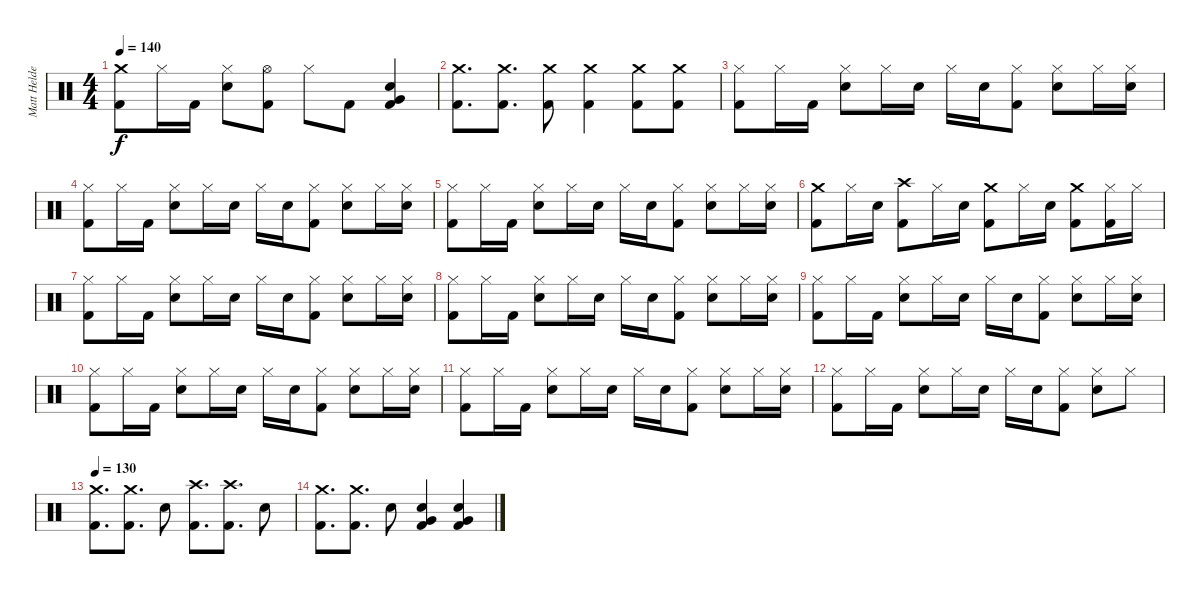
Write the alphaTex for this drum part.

\track ("Matt Helders" "Matt Helde") {instrument percussion}
\staff {score}
\articulation defaults
\ts (4 4)
\tempo 140
\clef neutral
\ks c
("Crash medium (hit)" "Kick (hit) 2").8{dy f} "Hi-Hat (closed)".16 "Kick (hit) 2".16 ("Hi-Hat (closed)" "Snare (hit) 2").8 ("Hi-Hat (open)" "Kick (hit) 2").8 "Hi-Hat (closed)".8 "Kick (hit) 2".8 ("Very Low Tom (hit)" "Kick (hit) 2" "Snare (hit) 2").4 |
("Crash medium (hit)" "Kick (hit) 2").8{d} ("Crash medium (hit)" "Kick (hit) 2").8{d} ("Crash medium (hit)" "Kick (hit) 2").8 ("Crash medium (hit)" "Kick (hit) 2").4 ("Crash medium (hit)" "Kick (hit) 2").8 ("Crash medium (hit)" "Kick (hit) 2").8 |
("Hi-Hat (closed)" "Kick (hit) 2").8 "Hi-Hat (closed)".16 "Kick (hit) 2".16 ("Hi-Hat (closed)" "Snare (hit) 2").8 "Hi-Hat (closed)".16 "Snare (hit) 2".16 "Hi-Hat (closed)".16 "Snare (hit) 2".16 ("Hi-Hat (closed)" "Kick (hit) 2").8 ("Hi-Hat (closed)" "Snare (hit) 2").8 "Hi-Hat (closed)".16 ("Hi-Hat (closed)" "Snare (hit) 2").16 |
("Hi-Hat (closed)" "Kick (hit) 2").8 "Hi-Hat (closed)".16 "Kick (hit) 2".16 ("Hi-Hat (closed)" "Snare (hit) 2").8 "Hi-Hat (closed)".16 "Snare (hit) 2".16 "Hi-Hat (closed)".16 "Snare (hit) 2".16 ("Hi-Hat (closed)" "Kick (hit) 2").8 ("Hi-Hat (closed)" "Snare (hit) 2").8 "Hi-Hat (closed)".16 ("Hi-Hat (closed)" "Snare (hit) 2").16 |
("Hi-Hat (closed)" "Kick (hit) 2").8 "Hi-Hat (closed)".16 "Kick (hit) 2".16 ("Hi-Hat (closed)" "Snare (hit) 2").8 "Hi-Hat (closed)".16 "Snare (hit) 2".16 "Hi-Hat (closed)".16 "Snare (hit) 2".16 ("Hi-Hat (closed)" "Kick (hit) 2").8 ("Hi-Hat (closed)" "Snare (hit) 2").8 "Hi-Hat (closed)".16 ("Hi-Hat (closed)" "Snare (hit) 2").16 |
("Crash medium (hit)" "Kick (hit) 2").8 "Hi-Hat (closed)".16 "Snare (hit) 2".16 ("Crash high (hit)" "Kick (hit) 2").8 "Hi-Hat (closed)".16 "Snare (hit) 2".16 ("Crash medium (hit)" "Kick (hit) 2").8 "Hi-Hat (closed)".16 "Snare (hit) 2".16 ("Crash medium (hit)" "Kick (hit) 2").8 ("Hi-Hat (closed)" "Kick (hit) 2").16 "Hi-Hat (closed)".16 |
("Hi-Hat (closed)" "Kick (hit) 2").8 "Hi-Hat (closed)".16 "Kick (hit) 2".16 ("Hi-Hat (closed)" "Snare (hit) 2").8 "Hi-Hat (closed)".16 "Snare (hit) 2".16 "Hi-Hat (closed)".16 "Snare (hit) 2".16 ("Hi-Hat (closed)" "Kick (hit) 2").8 ("Hi-Hat (closed)" "Snare (hit) 2").8 "Hi-Hat (closed)".16 ("Hi-Hat (closed)" "Snare (hit) 2").16 |
("Hi-Hat (closed)" "Kick (hit) 2").8 "Hi-Hat (closed)".16 "Kick (hit) 2".16 ("Hi-Hat (closed)" "Snare (hit) 2").8 "Hi-Hat (closed)".16 "Snare (hit) 2".16 "Hi-Hat (closed)".16 "Snare (hit) 2".16 ("Hi-Hat (closed)" "Kick (hit) 2").8 ("Hi-Hat (closed)" "Snare (hit) 2").8 "Hi-Hat (closed)".16 ("Hi-Hat (closed)" "Snare (hit) 2").16 |
("Hi-Hat (closed)" "Kick (hit) 2").8 "Hi-Hat (closed)".16 "Kick (hit) 2".16 ("Hi-Hat (closed)" "Snare (hit) 2").8 "Hi-Hat (closed)".16 "Snare (hit) 2".16 "Hi-Hat (closed)".16 "Snare (hit) 2".16 ("Hi-Hat (closed)" "Kick (hit) 2").8 ("Hi-Hat (closed)" "Snare (hit) 2").8 "Hi-Hat (closed)".16 ("Hi-Hat (closed)" "Snare (hit) 2").16 |
("Hi-Hat (closed)" "Kick (hit) 2").8 "Hi-Hat (closed)".16 "Kick (hit) 2".16 ("Hi-Hat (closed)" "Snare (hit) 2").8 "Hi-Hat (closed)".16 "Snare (hit) 2".16 "Hi-Hat (closed)".16 "Snare (hit) 2".16 ("Hi-Hat (closed)" "Kick (hit) 2").8 ("Hi-Hat (closed)" "Snare (hit) 2").8 "Hi-Hat (closed)".16 ("Hi-Hat (closed)" "Snare (hit) 2").16 |
("Hi-Hat (closed)" "Kick (hit) 2").8 "Hi-Hat (closed)".16 "Kick (hit) 2".16 ("Hi-Hat (closed)" "Snare (hit) 2").8 "Hi-Hat (closed)".16 "Snare (hit) 2".16 "Hi-Hat (closed)".16 "Snare (hit) 2".16 ("Hi-Hat (closed)" "Kick (hit) 2").8 ("Hi-Hat (closed)" "Snare (hit) 2").8 "Hi-Hat (closed)".16 ("Hi-Hat (closed)" "Snare (hit) 2").16 |
("Hi-Hat (closed)" "Kick (hit) 2").8 "Hi-Hat (closed)".16 "Kick (hit) 2".16 ("Hi-Hat (closed)" "Snare (hit) 2").8 "Hi-Hat (closed)".16 "Snare (hit) 2".16 "Hi-Hat (closed)".16 "Snare (hit) 2".16 ("Hi-Hat (closed)" "Kick (hit) 2").8 ("Hi-Hat (closed)" "Snare (hit) 2").8 "Hi-Hat (closed)".8 |
\tempo 130
("Crash medium (hit)" "Kick (hit) 2").8{d} ("Crash medium (hit)" "Kick (hit) 2").8{d} "Snare (hit) 2".8 ("Crash high (hit)" "Kick (hit) 2").8{d} ("Crash high (hit)" "Kick (hit) 2").8{d} "Snare (hit) 2".8 |
("Crash medium (hit)" "Kick (hit) 2").8{d} ("Crash medium (hit)" "Kick (hit) 2").8{d} "Snare (hit) 2".8 ("Snare (hit) 2" "Very Low Tom (hit)" "Kick (hit) 2").4 ("Snare (hit) 2" "Very Low Tom (hit)" "Kick (hit) 2").4
